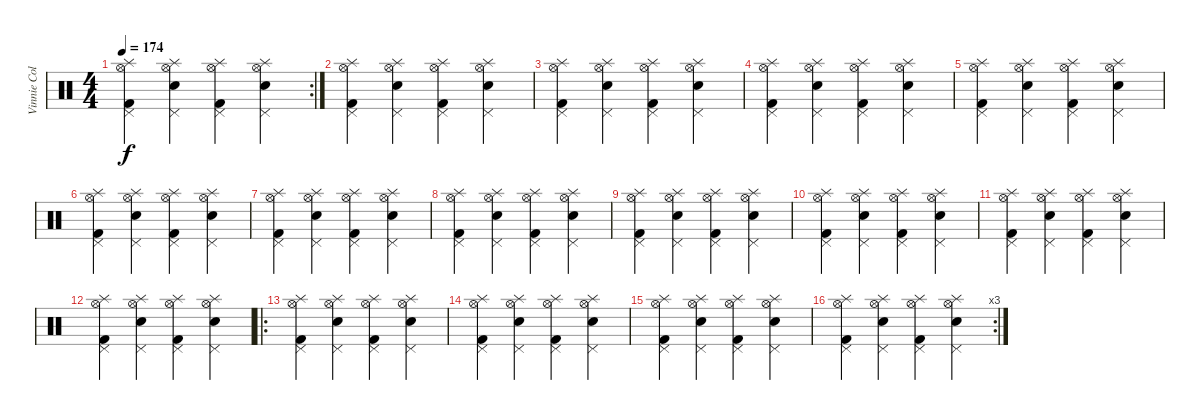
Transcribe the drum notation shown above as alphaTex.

\track ("Vinnie Colaiuta" "Vinnie Col") {instrument percussion}
\staff {score}
\articulation defaults
\rc 2
\ts (4 4)
\tempo 174
\clef neutral
\ks c
("Splash (hit)" "Kick (hit) 2" "Pedal Hi-Hat (hit)" "Hi-Hat (open)").4{dy f} ("Splash (hit)" "Snare (hit) 2" "Pedal Hi-Hat (hit)" "Hi-Hat (open)").4 ("Splash (hit)" "Kick (hit) 2" "Pedal Hi-Hat (hit)" "Hi-Hat (open)").4 ("Splash (hit)" "Snare (hit) 2" "Pedal Hi-Hat (hit)" "Hi-Hat (open)").4 |
("Splash (hit)" "Kick (hit) 2" "Pedal Hi-Hat (hit)" "Hi-Hat (open)").4 ("Splash (hit)" "Snare (hit) 2" "Pedal Hi-Hat (hit)" "Hi-Hat (open)").4 ("Splash (hit)" "Kick (hit) 2" "Pedal Hi-Hat (hit)" "Hi-Hat (open)").4 ("Splash (hit)" "Snare (hit) 2" "Pedal Hi-Hat (hit)" "Hi-Hat (open)").4 |
("Splash (hit)" "Kick (hit) 2" "Pedal Hi-Hat (hit)" "Hi-Hat (open)").4 ("Splash (hit)" "Snare (hit) 2" "Pedal Hi-Hat (hit)" "Hi-Hat (open)").4 ("Splash (hit)" "Kick (hit) 2" "Pedal Hi-Hat (hit)" "Hi-Hat (open)").4 ("Splash (hit)" "Snare (hit) 2" "Pedal Hi-Hat (hit)" "Hi-Hat (open)").4 |
("Splash (hit)" "Kick (hit) 2" "Pedal Hi-Hat (hit)" "Hi-Hat (open)").4 ("Splash (hit)" "Snare (hit) 2" "Pedal Hi-Hat (hit)" "Hi-Hat (open)").4 ("Splash (hit)" "Kick (hit) 2" "Pedal Hi-Hat (hit)" "Hi-Hat (open)").4 ("Splash (hit)" "Snare (hit) 2" "Pedal Hi-Hat (hit)" "Hi-Hat (open)").4 |
("Splash (hit)" "Kick (hit) 2" "Pedal Hi-Hat (hit)" "Hi-Hat (open)").4 ("Splash (hit)" "Snare (hit) 2" "Pedal Hi-Hat (hit)" "Hi-Hat (open)").4 ("Splash (hit)" "Kick (hit) 2" "Pedal Hi-Hat (hit)" "Hi-Hat (open)").4 ("Splash (hit)" "Snare (hit) 2" "Pedal Hi-Hat (hit)" "Hi-Hat (open)").4 |
("Splash (hit)" "Kick (hit) 2" "Pedal Hi-Hat (hit)" "Hi-Hat (open)").4 ("Splash (hit)" "Snare (hit) 2" "Pedal Hi-Hat (hit)" "Hi-Hat (open)").4 ("Splash (hit)" "Kick (hit) 2" "Pedal Hi-Hat (hit)" "Hi-Hat (open)").4 ("Splash (hit)" "Snare (hit) 2" "Pedal Hi-Hat (hit)" "Hi-Hat (open)").4 |
("Splash (hit)" "Kick (hit) 2" "Pedal Hi-Hat (hit)" "Hi-Hat (open)").4 ("Splash (hit)" "Snare (hit) 2" "Pedal Hi-Hat (hit)" "Hi-Hat (open)").4 ("Splash (hit)" "Kick (hit) 2" "Pedal Hi-Hat (hit)" "Hi-Hat (open)").4 ("Splash (hit)" "Snare (hit) 2" "Pedal Hi-Hat (hit)" "Hi-Hat (open)").4 |
("Splash (hit)" "Kick (hit) 2" "Pedal Hi-Hat (hit)" "Hi-Hat (open)").4 ("Splash (hit)" "Snare (hit) 2" "Pedal Hi-Hat (hit)" "Hi-Hat (open)").4 ("Splash (hit)" "Kick (hit) 2" "Pedal Hi-Hat (hit)" "Hi-Hat (open)").4 ("Splash (hit)" "Snare (hit) 2" "Pedal Hi-Hat (hit)" "Hi-Hat (open)").4 |
("Splash (hit)" "Kick (hit) 2" "Pedal Hi-Hat (hit)" "Hi-Hat (open)").4 ("Splash (hit)" "Snare (hit) 2" "Pedal Hi-Hat (hit)" "Hi-Hat (open)").4 ("Splash (hit)" "Kick (hit) 2" "Pedal Hi-Hat (hit)" "Hi-Hat (open)").4 ("Splash (hit)" "Snare (hit) 2" "Pedal Hi-Hat (hit)" "Hi-Hat (open)").4 |
("Splash (hit)" "Kick (hit) 2" "Pedal Hi-Hat (hit)" "Hi-Hat (open)").4 ("Splash (hit)" "Snare (hit) 2" "Pedal Hi-Hat (hit)" "Hi-Hat (open)").4 ("Splash (hit)" "Kick (hit) 2" "Pedal Hi-Hat (hit)" "Hi-Hat (open)").4 ("Splash (hit)" "Snare (hit) 2" "Pedal Hi-Hat (hit)" "Hi-Hat (open)").4 |
("Splash (hit)" "Kick (hit) 2" "Pedal Hi-Hat (hit)" "Hi-Hat (open)").4 ("Splash (hit)" "Snare (hit) 2" "Pedal Hi-Hat (hit)" "Hi-Hat (open)").4 ("Splash (hit)" "Kick (hit) 2" "Pedal Hi-Hat (hit)" "Hi-Hat (open)").4 ("Splash (hit)" "Snare (hit) 2" "Pedal Hi-Hat (hit)" "Hi-Hat (open)").4 |
("Splash (hit)" "Kick (hit) 2" "Pedal Hi-Hat (hit)" "Hi-Hat (open)").4 ("Splash (hit)" "Snare (hit) 2" "Pedal Hi-Hat (hit)" "Hi-Hat (open)").4 ("Splash (hit)" "Kick (hit) 2" "Pedal Hi-Hat (hit)" "Hi-Hat (open)").4 ("Splash (hit)" "Snare (hit) 2" "Pedal Hi-Hat (hit)" "Hi-Hat (open)").4 |
\ro
("Splash (hit)" "Kick (hit) 2" "Pedal Hi-Hat (hit)" "Hi-Hat (open)").4 ("Splash (hit)" "Snare (hit) 2" "Pedal Hi-Hat (hit)" "Hi-Hat (open)").4 ("Splash (hit)" "Kick (hit) 2" "Pedal Hi-Hat (hit)" "Hi-Hat (open)").4 ("Splash (hit)" "Snare (hit) 2" "Pedal Hi-Hat (hit)" "Hi-Hat (open)").4 |
("Splash (hit)" "Kick (hit) 2" "Pedal Hi-Hat (hit)" "Hi-Hat (open)").4 ("Splash (hit)" "Snare (hit) 2" "Pedal Hi-Hat (hit)" "Hi-Hat (open)").4 ("Splash (hit)" "Kick (hit) 2" "Pedal Hi-Hat (hit)" "Hi-Hat (open)").4 ("Splash (hit)" "Snare (hit) 2" "Pedal Hi-Hat (hit)" "Hi-Hat (open)").4 |
("Splash (hit)" "Kick (hit) 2" "Pedal Hi-Hat (hit)" "Hi-Hat (open)").4 ("Splash (hit)" "Snare (hit) 2" "Pedal Hi-Hat (hit)" "Hi-Hat (open)").4 ("Splash (hit)" "Kick (hit) 2" "Pedal Hi-Hat (hit)" "Hi-Hat (open)").4 ("Splash (hit)" "Snare (hit) 2" "Pedal Hi-Hat (hit)" "Hi-Hat (open)").4 |
\rc 3
("Splash (hit)" "Kick (hit) 2" "Pedal Hi-Hat (hit)" "Hi-Hat (open)").4 ("Splash (hit)" "Snare (hit) 2" "Pedal Hi-Hat (hit)" "Hi-Hat (open)").4 ("Splash (hit)" "Kick (hit) 2" "Pedal Hi-Hat (hit)" "Hi-Hat (open)").4 ("Splash (hit)" "Snare (hit) 2" "Pedal Hi-Hat (hit)" "Hi-Hat (open)").4
